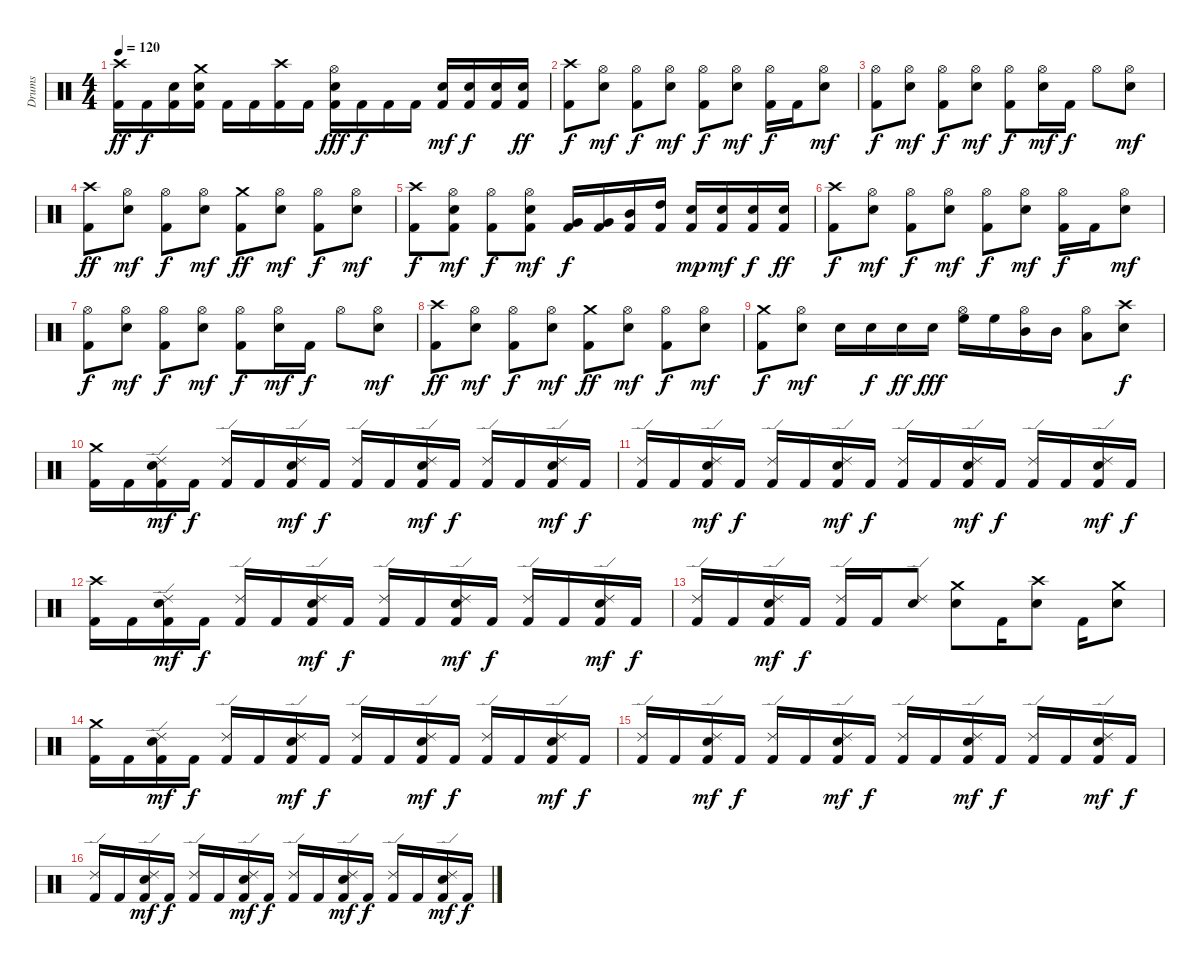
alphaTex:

\track ("Drums" "Drums") {instrument percussion}
\staff {score}
\articulation defaults
\ts (4 4)
\tempo 120
\clef neutral
\ks c
("Crash high (hit)" "Kick (hit) 2").16{dy ff} "Kick (hit) 2".16{dy f} ("Snare (hit) 2" "Kick (hit) 2").16 ("Crash medium (hit)" "Snare (hit) 2" "Kick (hit) 2").16 "Kick (hit) 2".16 "Kick (hit) 2".16 ("Crash high (hit)" "Kick (hit) 2").16 "Kick (hit) 2".16 ("Hi-Hat (open)" "Snare (hit) 2" "Kick (hit) 2").16{dy fff} "Kick (hit) 2".16{dy f} "Kick (hit) 2".16 "Kick (hit) 2".16 ("Snare (hit) 2" "Kick (hit) 2").16{dy mf} ("Snare (hit) 2" "Kick (hit) 2").16{dy f} ("Snare (hit) 2" "Kick (hit) 2").16 ("Snare (hit) 2" "Kick (hit) 2").16{dy ff} |
("Crash high (hit)" "Kick (hit) 2").8{dy f} ("Hi-Hat (open)" "Snare (hit) 2").8{dy mf} ("Hi-Hat (open)" "Kick (hit) 2").8{dy f} ("Hi-Hat (open)" "Snare (hit) 2").8{dy mf} ("Hi-Hat (open)" "Kick (hit) 2").8{dy f} ("Hi-Hat (open)" "Snare (hit) 2").8{dy mf} ("Hi-Hat (open)" "Kick (hit) 2").16{dy f} "Kick (hit) 2".16 ("Hi-Hat (open)" "Snare (hit) 2").8{dy mf} |
("Hi-Hat (open)" "Kick (hit) 2").8{dy f} ("Hi-Hat (open)" "Snare (hit) 2").8{dy mf} ("Hi-Hat (open)" "Kick (hit) 2").8{dy f} ("Hi-Hat (open)" "Snare (hit) 2").8{dy mf} ("Hi-Hat (open)" "Kick (hit) 2").8{dy f} ("Hi-Hat (open)" "Snare (hit) 2").16{dy mf} "Kick (hit) 2".16{dy f} "Hi-Hat (open)".8 ("Hi-Hat (open)" "Snare (hit) 2").8{dy mf} |
("Crash high (hit)" "Kick (hit) 2").8{dy ff} ("Hi-Hat (open)" "Snare (hit) 2").8{dy mf} ("Hi-Hat (open)" "Kick (hit) 2").8{dy f} ("Hi-Hat (open)" "Snare (hit) 2").8{dy mf} ("Crash medium (hit)" "Kick (hit) 2").8{dy ff} ("Hi-Hat (open)" "Snare (hit) 2").8{dy mf} ("Hi-Hat (open)" "Kick (hit) 2").8{dy f} ("Hi-Hat (open)" "Snare (hit) 2").8{dy mf} |
("Crash high (hit)" "Kick (hit) 2").8{dy f} ("Hi-Hat (open)" "Snare (hit) 2" "Kick (hit) 2").8{dy mf} ("Hi-Hat (open)" "Kick (hit) 2").8{dy f} ("Hi-Hat (open)" "Snare (hit) 2" "Kick (hit) 2").8{dy mf} ("Very Low Tom (hit)" "Kick (hit) 2").16{dy f} ("Very Low Tom (hit)" "Kick (hit) 2").16 ("Mid Tom (hit)" "Kick (hit) 2").16 ("High Tom (hit)" "Kick (hit) 2").16 ("Snare (hit) 2" "Kick (hit) 2").16{dy mp} ("Snare (hit) 2" "Kick (hit) 2").16{dy mf} ("Snare (hit) 2" "Kick (hit) 2").16{dy f} ("Snare (hit) 2" "Kick (hit) 2").16{dy ff} |
("Crash high (hit)" "Kick (hit) 2").8{dy f} ("Hi-Hat (open)" "Snare (hit) 2").8{dy mf} ("Hi-Hat (open)" "Kick (hit) 2").8{dy f} ("Hi-Hat (open)" "Snare (hit) 2").8{dy mf} ("Hi-Hat (open)" "Kick (hit) 2").8{dy f} ("Hi-Hat (open)" "Snare (hit) 2").8{dy mf} ("Hi-Hat (open)" "Kick (hit) 2").16{dy f} "Kick (hit) 2".16 ("Hi-Hat (open)" "Snare (hit) 2").8{dy mf} |
("Hi-Hat (open)" "Kick (hit) 2").8{dy f} ("Hi-Hat (open)" "Snare (hit) 2").8{dy mf} ("Hi-Hat (open)" "Kick (hit) 2").8{dy f} ("Hi-Hat (open)" "Snare (hit) 2").8{dy mf} ("Hi-Hat (open)" "Kick (hit) 2").8{dy f} ("Hi-Hat (open)" "Snare (hit) 2").16{dy mf} "Kick (hit) 2".16{dy f} "Hi-Hat (open)".8 ("Hi-Hat (open)" "Snare (hit) 2").8{dy mf} |
("Crash high (hit)" "Kick (hit) 2").8{dy ff} ("Hi-Hat (open)" "Snare (hit) 2").8{dy mf} ("Hi-Hat (open)" "Kick (hit) 2").8{dy f} ("Hi-Hat (open)" "Snare (hit) 2").8{dy mf} ("Crash medium (hit)" "Kick (hit) 2").8{dy ff} ("Hi-Hat (open)" "Snare (hit) 2").8{dy mf} ("Hi-Hat (open)" "Kick (hit) 2").8{dy f} ("Hi-Hat (open)" "Snare (hit) 2").8{dy mf} |
("Crash medium (hit)" "Kick (hit) 2").8{dy f} ("Hi-Hat (open)" "Snare (hit) 2").8{dy mf} "Snare (hit) 2".16 "Snare (hit) 2".16{dy f} "Snare (hit) 2".16{dy ff} "Snare (hit) 2".16{dy fff} ("Hi-Hat (open)" "High Floor Tom (hit)").16 "High Floor Tom (hit)".16 ("Hi-Hat (open)" "Mid Tom (hit)").16 "Mid Tom (hit)".16 ("Hi-Hat (open)" "Low Tom (hit)").8 ("Crash high (hit)" "Snare (hit) 2").8{dy f} |
("Crash medium (hit)" "Kick (hit) 2").16 "Kick (hit) 2".16 ("Ride (edge) 2" "Snare (hit) 2" "Kick (hit) 2").16{dy mf} "Kick (hit) 2".16{dy f} ("Ride (edge) 2" "Kick (hit) 2").16 "Kick (hit) 2".16 ("Ride (edge) 2" "Snare (hit) 2" "Kick (hit) 2").16{dy mf} "Kick (hit) 2".16{dy f} ("Ride (edge) 2" "Kick (hit) 2").16 "Kick (hit) 2".16 ("Ride (edge) 2" "Snare (hit) 2" "Kick (hit) 2").16{dy mf} "Kick (hit) 2".16{dy f} ("Ride (edge) 2" "Kick (hit) 2").16 "Kick (hit) 2".16 ("Ride (edge) 2" "Snare (hit) 2" "Kick (hit) 2").16{dy mf} "Kick (hit) 2".16{dy f} |
("Ride (edge) 2" "Kick (hit) 2").16 "Kick (hit) 2".16 ("Ride (edge) 2" "Snare (hit) 2" "Kick (hit) 2").16{dy mf} "Kick (hit) 2".16{dy f} ("Ride (edge) 2" "Kick (hit) 2").16 "Kick (hit) 2".16 ("Ride (edge) 2" "Snare (hit) 2" "Kick (hit) 2").16{dy mf} "Kick (hit) 2".16{dy f} ("Ride (edge) 2" "Kick (hit) 2").16 "Kick (hit) 2".16 ("Ride (edge) 2" "Snare (hit) 2" "Kick (hit) 2").16{dy mf} "Kick (hit) 2".16{dy f} ("Ride (edge) 2" "Kick (hit) 2").16 "Kick (hit) 2".16 ("Ride (edge) 2" "Snare (hit) 2" "Kick (hit) 2").16{dy mf} "Kick (hit) 2".16{dy f} |
("Crash high (hit)" "Kick (hit) 2").16 "Kick (hit) 2".16 ("Ride (edge) 2" "Snare (hit) 2" "Kick (hit) 2").16{dy mf} "Kick (hit) 2".16{dy f} ("Ride (edge) 2" "Kick (hit) 2").16 "Kick (hit) 2".16 ("Ride (edge) 2" "Snare (hit) 2" "Kick (hit) 2").16{dy mf} "Kick (hit) 2".16{dy f} ("Ride (edge) 2" "Kick (hit) 2").16 "Kick (hit) 2".16 ("Ride (edge) 2" "Snare (hit) 2" "Kick (hit) 2").16{dy mf} "Kick (hit) 2".16{dy f} ("Ride (edge) 2" "Kick (hit) 2").16 "Kick (hit) 2".16 ("Ride (edge) 2" "Snare (hit) 2" "Kick (hit) 2").16{dy mf} "Kick (hit) 2".16{dy f} |
("Ride (edge) 2" "Kick (hit) 2").16 "Kick (hit) 2".16 ("Ride (edge) 2" "Snare (hit) 2" "Kick (hit) 2").16{dy mf} "Kick (hit) 2".16{dy f} ("Ride (edge) 2" "Kick (hit) 2").16 "Kick (hit) 2".16 ("Ride (edge) 2" "Snare (hit) 2").8 ("Crash medium (hit)" "Snare (hit) 2").8 "Kick (hit) 2".16 ("Crash high (hit)" "Snare (hit) 2").8 "Kick (hit) 2".16 ("Crash medium (hit)" "Snare (hit) 2").8 |
("Crash medium (hit)" "Kick (hit) 2").16 "Kick (hit) 2".16 ("Ride (edge) 2" "Snare (hit) 2" "Kick (hit) 2").16{dy mf} "Kick (hit) 2".16{dy f} ("Ride (edge) 2" "Kick (hit) 2").16 "Kick (hit) 2".16 ("Ride (edge) 2" "Snare (hit) 2" "Kick (hit) 2").16{dy mf} "Kick (hit) 2".16{dy f} ("Ride (edge) 2" "Kick (hit) 2").16 "Kick (hit) 2".16 ("Ride (edge) 2" "Snare (hit) 2" "Kick (hit) 2").16{dy mf} "Kick (hit) 2".16{dy f} ("Ride (edge) 2" "Kick (hit) 2").16 "Kick (hit) 2".16 ("Ride (edge) 2" "Snare (hit) 2" "Kick (hit) 2").16{dy mf} "Kick (hit) 2".16{dy f} |
("Ride (edge) 2" "Kick (hit) 2").16 "Kick (hit) 2".16 ("Ride (edge) 2" "Snare (hit) 2" "Kick (hit) 2").16{dy mf} "Kick (hit) 2".16{dy f} ("Ride (edge) 2" "Kick (hit) 2").16 "Kick (hit) 2".16 ("Ride (edge) 2" "Snare (hit) 2" "Kick (hit) 2").16{dy mf} "Kick (hit) 2".16{dy f} ("Ride (edge) 2" "Kick (hit) 2").16 "Kick (hit) 2".16 ("Ride (edge) 2" "Snare (hit) 2" "Kick (hit) 2").16{dy mf} "Kick (hit) 2".16{dy f} ("Ride (edge) 2" "Kick (hit) 2").16 "Kick (hit) 2".16 ("Ride (edge) 2" "Snare (hit) 2" "Kick (hit) 2").16{dy mf} "Kick (hit) 2".16{dy f} |
("Ride (edge) 2" "Kick (hit) 2").16 "Kick (hit) 2".16 ("Ride (edge) 2" "Snare (hit) 2" "Kick (hit) 2").16{dy mf} "Kick (hit) 2".16{dy f} ("Ride (edge) 2" "Kick (hit) 2").16 "Kick (hit) 2".16 ("Ride (edge) 2" "Snare (hit) 2" "Kick (hit) 2").16{dy mf} "Kick (hit) 2".16{dy f} ("Ride (edge) 2" "Kick (hit) 2").16 "Kick (hit) 2".16 ("Ride (edge) 2" "Snare (hit) 2" "Kick (hit) 2").16{dy mf} "Kick (hit) 2".16{dy f} ("Ride (edge) 2" "Kick (hit) 2").16 "Kick (hit) 2".16 ("Ride (edge) 2" "Snare (hit) 2" "Kick (hit) 2").16{dy mf} "Kick (hit) 2".16{dy f}
